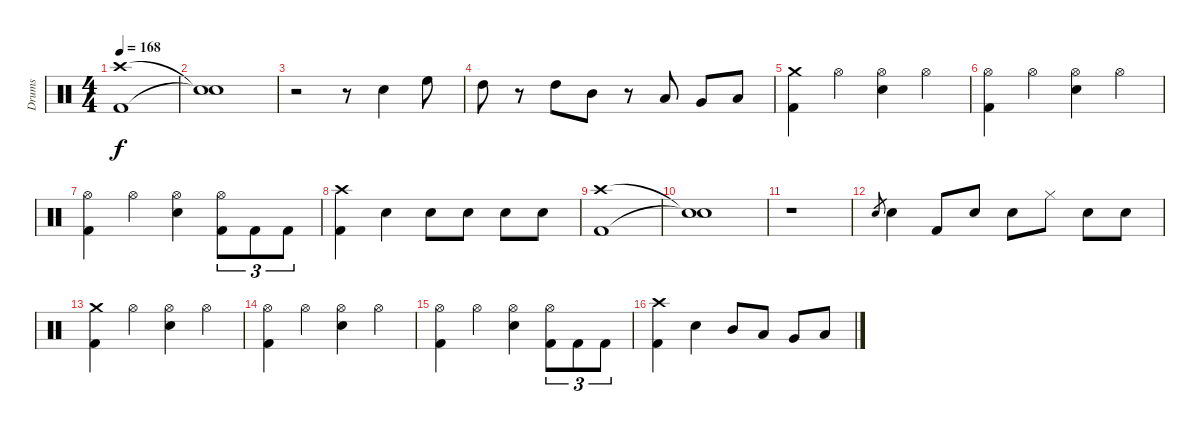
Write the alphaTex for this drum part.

\track ("Drums" "Drums") {instrument percussion}
\staff {score}
\articulation defaults
\ts (4 4)
\section ("" "")
\tempo 168
\clef neutral
\ks c
("Kick (hit) 2" "Crash high (hit)").1{dy f} |
("Snare (hit)"{t} "Snare (hit)"{t}).1 |
r.2 r.8 "Electric Snare (hit)".4 "High Floor Tom (hit)".8 |
"High Tom (hit)".8 r.8 "High Tom (hit)".8 "Mid Tom (hit)".8 r.8 "Low Tom (hit)".8 "Very Low Tom (hit)".8 "Low Floor Tom (hit)".8 |
("Kick (hit) 2" "Crash medium (hit)").4 "Hi-Hat (open)".4 ("Electric Snare (hit)" "Hi-Hat (open)").4 "Hi-Hat (open)".4 |
("Kick (hit) 2" "Hi-Hat (open)").4 "Hi-Hat (open)".4 ("Electric Snare (hit)" "Hi-Hat (open)").4 "Hi-Hat (open)".4 |
("Kick (hit) 2" "Hi-Hat (open)").4 "Hi-Hat (open)".4 ("Electric Snare (hit)" "Hi-Hat (open)").4 ("Kick (hit) 2" "Hi-Hat (open)").8{tu (3 2)} "Kick (hit) 2".8{tu (3 2)} "Kick (hit) 2".8{tu (3 2)} |
("Kick (hit) 2" "Crash high (hit)").4 "Electric Snare (hit)".4 "Electric Snare (hit)".8 "Electric Snare (hit)".8 "Electric Snare (hit)".8 "Electric Snare (hit)".8 |
("Kick (hit) 2" "Crash high (hit)").1 |
("Snare (hit)"{t} "Snare (hit)"{t}).1 |
r.1 |
"Electric Snare (hit)".8{gr} "Electric Snare (hit)".4 "Kick (hit) 2".8 "Electric Snare (hit)".8 "Electric Snare (hit)".8 "Hi-Hat (closed)".8 "Electric Snare (hit)".8 "Electric Snare (hit)".8 |
("Kick (hit) 2" "Crash medium (hit)").4 "Hi-Hat (open)".4 ("Electric Snare (hit)" "Hi-Hat (open)").4 "Hi-Hat (open)".4 |
("Kick (hit) 2" "Hi-Hat (open)").4 "Hi-Hat (open)".4 ("Electric Snare (hit)" "Hi-Hat (open)").4 "Hi-Hat (open)".4 |
("Kick (hit) 2" "Hi-Hat (open)").4 "Hi-Hat (open)".4 ("Electric Snare (hit)" "Hi-Hat (open)").4 ("Kick (hit) 2" "Hi-Hat (open)").8{tu (3 2)} "Kick (hit) 2".8{tu (3 2)} "Kick (hit) 2".8{tu (3 2)} |
("Kick (hit) 2" "Crash high (hit)").4 "Electric Snare (hit)".4 "Mid Tom (hit)".8 "Low Tom (hit)".8 "Very Low Tom (hit)".8 "Low Floor Tom (hit)".8
